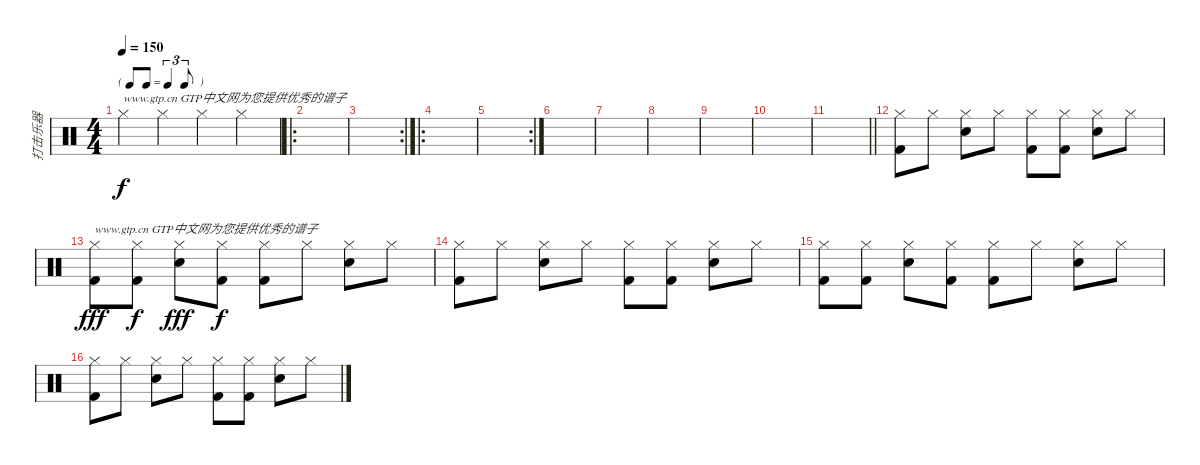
\track ("打击乐器" "打击乐器") {instrument percussion}
\staff {score}
\articulation defaults
\ts (4 4)
\tf triplet8th
\tempo 150
\clef neutral
\ks c "Hi-Hat (closed)".4{txt "www.gtp.cn GTP中文网为您提供优秀的谱子" dy f} "Hi-Hat (closed)".4 "Hi-Hat (closed)".4 "Hi-Hat (closed)".4
|
\ro
|
\rc 2
|
\ro
|
\rc 2
|
|
|
|
|
|
\barLineRight lightlight
|
("Hi-Hat (closed)" "Kick (hit) 2").8 "Hi-Hat (closed)".8 ("Hi-Hat (closed)" "Snare (hit) 2").8 "Hi-Hat (closed)".8 ("Hi-Hat (closed)" "Kick (hit) 2").8 ("Hi-Hat (closed)" "Kick (hit) 2").8 ("Hi-Hat (closed)" "Snare (hit) 2").8 "Hi-Hat (closed)".8 |
("Hi-Hat (closed)" "Kick (hit) 2").8{txt "www.gtp.cn GTP中文网为您提供优秀的谱子" dy fff} ("Hi-Hat (closed)" "Kick (hit) 2").8{dy f} ("Hi-Hat (closed)" "Snare (hit) 2").8{dy fff} ("Hi-Hat (closed)" "Kick (hit) 2").8{dy f} ("Hi-Hat (closed)" "Kick (hit) 2").8 "Hi-Hat (closed)".8 ("Hi-Hat (closed)" "Snare (hit) 2").8 "Hi-Hat (closed)".8 |
("Hi-Hat (closed)" "Kick (hit) 2").8 "Hi-Hat (closed)".8 ("Hi-Hat (closed)" "Snare (hit) 2").8 "Hi-Hat (closed)".8 ("Hi-Hat (closed)" "Kick (hit) 2").8 ("Hi-Hat (closed)" "Kick (hit) 2").8 ("Hi-Hat (closed)" "Snare (hit) 2").8 "Hi-Hat (closed)".8 |
("Hi-Hat (closed)" "Kick (hit) 2").8 ("Hi-Hat (closed)" "Kick (hit) 2").8 ("Hi-Hat (closed)" "Snare (hit) 2").8 ("Hi-Hat (closed)" "Kick (hit) 2").8 ("Hi-Hat (closed)" "Kick (hit) 2").8 "Hi-Hat (closed)".8 ("Hi-Hat (closed)" "Snare (hit) 2").8 "Hi-Hat (closed)".8 |
("Hi-Hat (closed)" "Kick (hit) 2").8 "Hi-Hat (closed)".8 ("Hi-Hat (closed)" "Snare (hit) 2").8 "Hi-Hat (closed)".8 ("Hi-Hat (closed)" "Kick (hit) 2").8 ("Hi-Hat (closed)" "Kick (hit) 2").8 ("Hi-Hat (closed)" "Snare (hit) 2").8 "Hi-Hat (closed)".8
